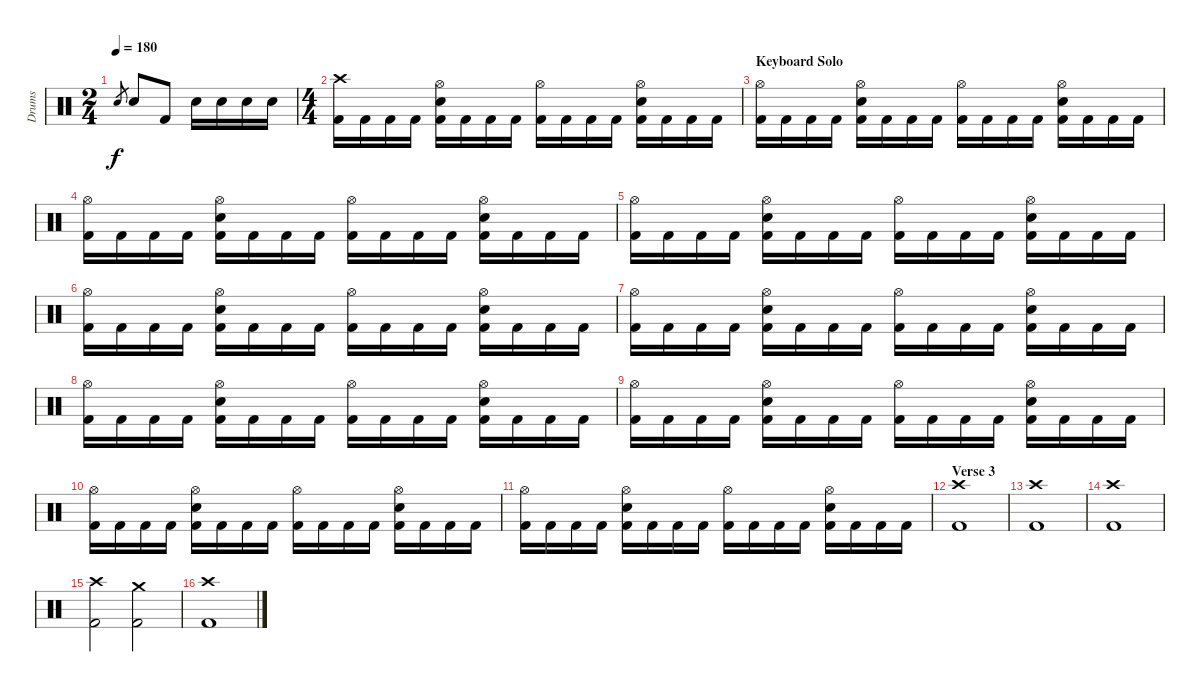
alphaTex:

\track ("Drums" "Drums") {instrument percussion}
\staff {score}
\articulation defaults
\ts (2 4)
\tempo 180
\clef neutral
\ks c "Electric Snare (hit)".8{gr dy f} "Electric Snare (hit)".8 "Kick (hit) 2".8 "Electric Snare (hit)".16 "Electric Snare (hit)".16 "Electric Snare (hit)".16 "Electric Snare (hit)".16
|
\ts (4 4)
("Crash high (hit)" "Kick (hit) 2").16 "Kick (hit) 2".16 "Kick (hit) 2".16 "Kick (hit) 2".16 ("Hi-Hat (open)" "Electric Snare (hit)" "Kick (hit) 2").16 "Kick (hit) 2".16 "Kick (hit) 2".16 "Kick (hit) 2".16 ("Hi-Hat (open)" "Kick (hit) 2").16 "Kick (hit) 2".16 "Kick (hit) 2".16 "Kick (hit) 2".16 ("Hi-Hat (open)" "Electric Snare (hit)" "Kick (hit) 2").16 "Kick (hit) 2".16 "Kick (hit) 2".16 "Kick (hit) 2".16 |
\section ("" "Keyboard Solo")
("Hi-Hat (open)" "Kick (hit) 2").16 "Kick (hit) 2".16 "Kick (hit) 2".16 "Kick (hit) 2".16 ("Hi-Hat (open)" "Electric Snare (hit)" "Kick (hit) 2").16 "Kick (hit) 2".16 "Kick (hit) 2".16 "Kick (hit) 2".16 ("Hi-Hat (open)" "Kick (hit) 2").16 "Kick (hit) 2".16 "Kick (hit) 2".16 "Kick (hit) 2".16 ("Hi-Hat (open)" "Electric Snare (hit)" "Kick (hit) 2").16 "Kick (hit) 2".16 "Kick (hit) 2".16 "Kick (hit) 2".16 |
("Hi-Hat (open)" "Kick (hit) 2").16 "Kick (hit) 2".16 "Kick (hit) 2".16 "Kick (hit) 2".16 ("Hi-Hat (open)" "Electric Snare (hit)" "Kick (hit) 2").16 "Kick (hit) 2".16 "Kick (hit) 2".16 "Kick (hit) 2".16 ("Hi-Hat (open)" "Kick (hit) 2").16 "Kick (hit) 2".16 "Kick (hit) 2".16 "Kick (hit) 2".16 ("Hi-Hat (open)" "Electric Snare (hit)" "Kick (hit) 2").16 "Kick (hit) 2".16 "Kick (hit) 2".16 "Kick (hit) 2".16 |
("Hi-Hat (open)" "Kick (hit) 2").16 "Kick (hit) 2".16 "Kick (hit) 2".16 "Kick (hit) 2".16 ("Hi-Hat (open)" "Electric Snare (hit)" "Kick (hit) 2").16 "Kick (hit) 2".16 "Kick (hit) 2".16 "Kick (hit) 2".16 ("Hi-Hat (open)" "Kick (hit) 2").16 "Kick (hit) 2".16 "Kick (hit) 2".16 "Kick (hit) 2".16 ("Hi-Hat (open)" "Electric Snare (hit)" "Kick (hit) 2").16 "Kick (hit) 2".16 "Kick (hit) 2".16 "Kick (hit) 2".16 |
("Hi-Hat (open)" "Kick (hit) 2").16 "Kick (hit) 2".16 "Kick (hit) 2".16 "Kick (hit) 2".16 ("Hi-Hat (open)" "Electric Snare (hit)" "Kick (hit) 2").16 "Kick (hit) 2".16 "Kick (hit) 2".16 "Kick (hit) 2".16 ("Hi-Hat (open)" "Kick (hit) 2").16 "Kick (hit) 2".16 "Kick (hit) 2".16 "Kick (hit) 2".16 ("Hi-Hat (open)" "Electric Snare (hit)" "Kick (hit) 2").16 "Kick (hit) 2".16 "Kick (hit) 2".16 "Kick (hit) 2".16 |
("Hi-Hat (open)" "Kick (hit) 2").16 "Kick (hit) 2".16 "Kick (hit) 2".16 "Kick (hit) 2".16 ("Hi-Hat (open)" "Electric Snare (hit)" "Kick (hit) 2").16 "Kick (hit) 2".16 "Kick (hit) 2".16 "Kick (hit) 2".16 ("Hi-Hat (open)" "Kick (hit) 2").16 "Kick (hit) 2".16 "Kick (hit) 2".16 "Kick (hit) 2".16 ("Hi-Hat (open)" "Electric Snare (hit)" "Kick (hit) 2").16 "Kick (hit) 2".16 "Kick (hit) 2".16 "Kick (hit) 2".16 |
("Hi-Hat (open)" "Kick (hit) 2").16 "Kick (hit) 2".16 "Kick (hit) 2".16 "Kick (hit) 2".16 ("Hi-Hat (open)" "Electric Snare (hit)" "Kick (hit) 2").16 "Kick (hit) 2".16 "Kick (hit) 2".16 "Kick (hit) 2".16 ("Hi-Hat (open)" "Kick (hit) 2").16 "Kick (hit) 2".16 "Kick (hit) 2".16 "Kick (hit) 2".16 ("Hi-Hat (open)" "Electric Snare (hit)" "Kick (hit) 2").16 "Kick (hit) 2".16 "Kick (hit) 2".16 "Kick (hit) 2".16 |
("Hi-Hat (open)" "Kick (hit) 2").16 "Kick (hit) 2".16 "Kick (hit) 2".16 "Kick (hit) 2".16 ("Hi-Hat (open)" "Electric Snare (hit)" "Kick (hit) 2").16 "Kick (hit) 2".16 "Kick (hit) 2".16 "Kick (hit) 2".16 ("Hi-Hat (open)" "Kick (hit) 2").16 "Kick (hit) 2".16 "Kick (hit) 2".16 "Kick (hit) 2".16 ("Hi-Hat (open)" "Electric Snare (hit)" "Kick (hit) 2").16 "Kick (hit) 2".16 "Kick (hit) 2".16 "Kick (hit) 2".16 |
("Hi-Hat (open)" "Kick (hit) 2").16 "Kick (hit) 2".16 "Kick (hit) 2".16 "Kick (hit) 2".16 ("Hi-Hat (open)" "Electric Snare (hit)" "Kick (hit) 2").16 "Kick (hit) 2".16 "Kick (hit) 2".16 "Kick (hit) 2".16 ("Hi-Hat (open)" "Kick (hit) 2").16 "Kick (hit) 2".16 "Kick (hit) 2".16 "Kick (hit) 2".16 ("Hi-Hat (open)" "Electric Snare (hit)" "Kick (hit) 2").16 "Kick (hit) 2".16 "Kick (hit) 2".16 "Kick (hit) 2".16 |
("Hi-Hat (open)" "Kick (hit) 2").16 "Kick (hit) 2".16 "Kick (hit) 2".16 "Kick (hit) 2".16 ("Hi-Hat (open)" "Electric Snare (hit)" "Kick (hit) 2").16 "Kick (hit) 2".16 "Kick (hit) 2".16 "Kick (hit) 2".16 ("Hi-Hat (open)" "Kick (hit) 2").16 "Kick (hit) 2".16 "Kick (hit) 2".16 "Kick (hit) 2".16 ("Hi-Hat (open)" "Electric Snare (hit)" "Kick (hit) 2").16 "Kick (hit) 2".16 "Kick (hit) 2".16 "Kick (hit) 2".16 |
\section ("" "Verse 3")
("Crash high (hit)" "Kick (hit) 2").1 |
("Crash high (hit)" "Kick (hit) 2").1 |
("Crash high (hit)" "Kick (hit) 2").1 |
("Crash high (hit)" "Kick (hit) 2").2 ("Crash medium (hit)" "Kick (hit) 2").2 |
("Crash high (hit)" "Kick (hit) 2").1
